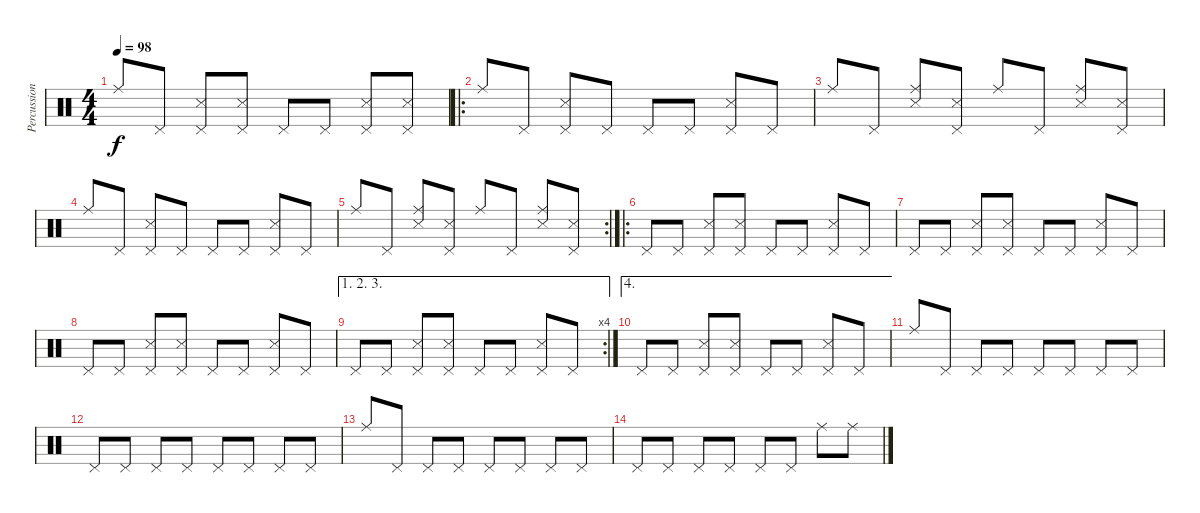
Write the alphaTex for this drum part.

\track ("Percussion" "Percussion") {instrument percussion}
\staff {score}
\articulation defaults
\ts (4 4)
\tempo 98
\clef neutral
\ks c "Ride (middle)".8{dy f} "Pedal Hi-Hat (hit)".8
("Pedal Hi-Hat (hit)" "Snare (side stick) 3").8 ("Pedal Hi-Hat (hit)" "Snare (side stick) 3").8 "Pedal Hi-Hat (hit)".8 "Pedal Hi-Hat (hit)".8 ("Pedal Hi-Hat (hit)" "Snare (side stick) 3").8 ("Pedal Hi-Hat (hit)" "Snare (side stick) 3").8 |
\ro "Ride (middle)".8 "Pedal Hi-Hat (hit)".8
("Pedal Hi-Hat (hit)" "Snare (side stick) 3").8 "Pedal Hi-Hat (hit)".8 "Pedal Hi-Hat (hit)".8 "Pedal Hi-Hat (hit)".8 ("Pedal Hi-Hat (hit)" "Snare (side stick) 3").8 "Pedal Hi-Hat (hit)".8 |
"Ride (middle)".8 "Pedal Hi-Hat (hit)".8 ("Ride (middle)" "Snare (side stick) 3").8 ("Pedal Hi-Hat (hit)" "Snare (side stick) 3").8 "Ride (middle)".8 "Pedal Hi-Hat (hit)".8 ("Ride (middle)" "Snare (side stick) 3").8 ("Pedal Hi-Hat (hit)" "Snare (side stick) 3").8 |
"Ride (middle)".8 "Pedal Hi-Hat (hit)".8 ("Pedal Hi-Hat (hit)" "Snare (side stick) 3").8 "Pedal Hi-Hat (hit)".8 "Pedal Hi-Hat (hit)".8 "Pedal Hi-Hat (hit)".8 ("Pedal Hi-Hat (hit)" "Snare (side stick) 3").8 "Pedal Hi-Hat (hit)".8 |
\rc 2 "Ride (middle)".8 "Pedal Hi-Hat (hit)".8
("Ride (middle)" "Snare (side stick) 3").8 ("Pedal Hi-Hat (hit)" "Snare (side stick) 3").8 "Ride (middle)".8 "Pedal Hi-Hat (hit)".8 ("Ride (middle)" "Snare (side stick) 3").8 ("Pedal Hi-Hat (hit)" "Snare (side stick) 3").8 |
\ro "Pedal Hi-Hat (hit)".8 "Pedal Hi-Hat (hit)".8
("Pedal Hi-Hat (hit)" "Snare (side stick) 3").8 ("Pedal Hi-Hat (hit)" "Snare (side stick) 3").8 "Pedal Hi-Hat (hit)".8 "Pedal Hi-Hat (hit)".8 ("Pedal Hi-Hat (hit)" "Snare (side stick) 3").8 "Pedal Hi-Hat (hit)".8 |
"Pedal Hi-Hat (hit)".8 "Pedal Hi-Hat (hit)".8 ("Pedal Hi-Hat (hit)" "Snare (side stick) 3").8 ("Pedal Hi-Hat (hit)" "Snare (side stick) 3").8 "Pedal Hi-Hat (hit)".8 "Pedal Hi-Hat (hit)".8 ("Pedal Hi-Hat (hit)" "Snare (side stick) 3").8 "Pedal Hi-Hat (hit)".8 |
"Pedal Hi-Hat (hit)".8 "Pedal Hi-Hat (hit)".8 ("Pedal Hi-Hat (hit)" "Snare (side stick) 3").8 ("Pedal Hi-Hat (hit)" "Snare (side stick) 3").8 "Pedal Hi-Hat (hit)".8 "Pedal Hi-Hat (hit)".8 ("Pedal Hi-Hat (hit)" "Snare (side stick) 3").8 "Pedal Hi-Hat (hit)".8 |
\ae (1 2 3)
\rc 4 "Pedal Hi-Hat (hit)".8 "Pedal Hi-Hat (hit)".8
("Pedal Hi-Hat (hit)" "Snare (side stick) 3").8 ("Pedal Hi-Hat (hit)" "Snare (side stick) 3").8 "Pedal Hi-Hat (hit)".8 "Pedal Hi-Hat (hit)".8 ("Pedal Hi-Hat (hit)" "Snare (side stick) 3").8 "Pedal Hi-Hat (hit)".8 |
\ae 4 "Pedal Hi-Hat (hit)".8 "Pedal Hi-Hat (hit)".8
("Pedal Hi-Hat (hit)" "Snare (side stick) 3").8 ("Pedal Hi-Hat (hit)" "Snare (side stick) 3").8 "Pedal Hi-Hat (hit)".8 "Pedal Hi-Hat (hit)".8 ("Pedal Hi-Hat (hit)" "Snare (side stick) 3").8 "Pedal Hi-Hat (hit)".8 |
"Ride (middle)".8 "Pedal Hi-Hat (hit)".8 "Pedal Hi-Hat (hit)".8 "Pedal Hi-Hat (hit)".8 "Pedal Hi-Hat (hit)".8 "Pedal Hi-Hat (hit)".8 "Pedal Hi-Hat (hit)".8 "Pedal Hi-Hat (hit)".8 |
"Pedal Hi-Hat (hit)".8 "Pedal Hi-Hat (hit)".8 "Pedal Hi-Hat (hit)".8 "Pedal Hi-Hat (hit)".8 "Pedal Hi-Hat (hit)".8 "Pedal Hi-Hat (hit)".8 "Pedal Hi-Hat (hit)".8 "Pedal Hi-Hat (hit)".8 |
"Ride (middle)".8 "Pedal Hi-Hat (hit)".8 "Pedal Hi-Hat (hit)".8 "Pedal Hi-Hat (hit)".8 "Pedal Hi-Hat (hit)".8 "Pedal Hi-Hat (hit)".8 "Pedal Hi-Hat (hit)".8 "Pedal Hi-Hat (hit)".8 |
"Pedal Hi-Hat (hit)".8 "Pedal Hi-Hat (hit)".8 "Pedal Hi-Hat (hit)".8 "Pedal Hi-Hat (hit)".8 "Pedal Hi-Hat (hit)".8 "Pedal Hi-Hat (hit)".8 "Ride (middle)".8 "Ride (middle)".8
